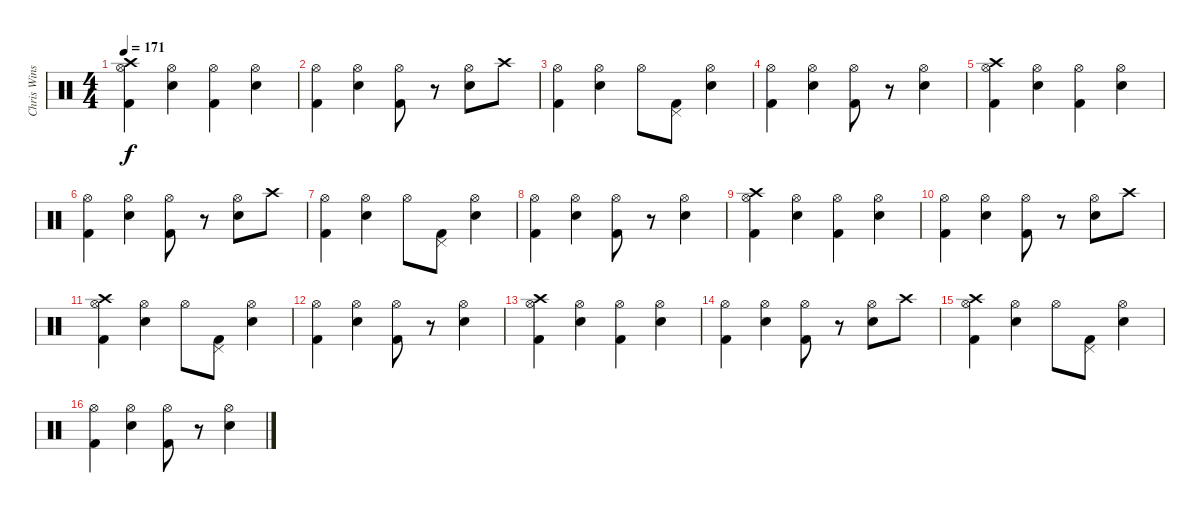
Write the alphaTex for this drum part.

\track ("Chris Winship (Drums)" "Chris Wins") {instrument percussion}
\staff {score}
\articulation defaults
\ts (4 4)
\tempo 171
\clef neutral
\ks c
("Crash high (hit)" "Hi-Hat (open)" "Kick (hit) 2").4{dy f} ("Hi-Hat (open)" "Snare (hit) 2").4 ("Hi-Hat (open)" "Kick (hit) 2").4 ("Hi-Hat (open)" "Snare (hit) 2").4 |
("Hi-Hat (open)" "Kick (hit) 2").4 ("Hi-Hat (open)" "Snare (hit) 2").4 ("Hi-Hat (open)" "Kick (hit) 2").8 r.8 ("Hi-Hat (open)" "Snare (hit) 2").8 "Crash high (hit)".8 |
("Hi-Hat (open)" "Kick (hit) 2").4 ("Hi-Hat (open)" "Snare (hit) 2").4 "Hi-Hat (open)".8 ("Pedal Hi-Hat (hit)" "Kick (hit) 2").8 ("Hi-Hat (open)" "Snare (hit) 2").4 |
("Hi-Hat (open)" "Kick (hit) 2").4 ("Hi-Hat (open)" "Snare (hit) 2").4 ("Hi-Hat (open)" "Kick (hit) 2").8 r.8 ("Hi-Hat (open)" "Snare (hit) 2").4 |
("Crash high (hit)" "Hi-Hat (open)" "Kick (hit) 2").4 ("Hi-Hat (open)" "Snare (hit) 2").4 ("Hi-Hat (open)" "Kick (hit) 2").4 ("Hi-Hat (open)" "Snare (hit) 2").4 |
("Hi-Hat (open)" "Kick (hit) 2").4 ("Hi-Hat (open)" "Snare (hit) 2").4 ("Hi-Hat (open)" "Kick (hit) 2").8 r.8 ("Hi-Hat (open)" "Snare (hit) 2").8 "Crash high (hit)".8 |
("Hi-Hat (open)" "Kick (hit) 2").4 ("Hi-Hat (open)" "Snare (hit) 2").4 "Hi-Hat (open)".8 ("Pedal Hi-Hat (hit)" "Kick (hit) 2").8 ("Hi-Hat (open)" "Snare (hit) 2").4 |
("Hi-Hat (open)" "Kick (hit) 2").4 ("Hi-Hat (open)" "Snare (hit) 2").4 ("Hi-Hat (open)" "Kick (hit) 2").8 r.8 ("Hi-Hat (open)" "Snare (hit) 2").4 |
("Crash high (hit)" "Hi-Hat (open)" "Kick (hit) 2").4 ("Hi-Hat (open)" "Snare (hit) 2").4 ("Hi-Hat (open)" "Kick (hit) 2").4 ("Hi-Hat (open)" "Snare (hit) 2").4 |
("Hi-Hat (open)" "Kick (hit) 2").4 ("Hi-Hat (open)" "Snare (hit) 2").4 ("Hi-Hat (open)" "Kick (hit) 2").8 r.8 ("Hi-Hat (open)" "Snare (hit) 2").8 "Crash high (hit)".8 |
("Crash high (hit)" "Hi-Hat (open)" "Kick (hit) 2").4 ("Hi-Hat (open)" "Snare (hit) 2").4 "Hi-Hat (open)".8 ("Pedal Hi-Hat (hit)" "Kick (hit) 2").8 ("Hi-Hat (open)" "Snare (hit) 2").4 |
("Hi-Hat (open)" "Kick (hit) 2").4 ("Hi-Hat (open)" "Snare (hit) 2").4 ("Hi-Hat (open)" "Kick (hit) 2").8 r.8 ("Hi-Hat (open)" "Snare (hit) 2").4 |
("Crash high (hit)" "Hi-Hat (open)" "Kick (hit) 2").4 ("Hi-Hat (open)" "Snare (hit) 2").4 ("Hi-Hat (open)" "Kick (hit) 2").4 ("Hi-Hat (open)" "Snare (hit) 2").4 |
("Hi-Hat (open)" "Kick (hit) 2").4 ("Hi-Hat (open)" "Snare (hit) 2").4 ("Hi-Hat (open)" "Kick (hit) 2").8 r.8 ("Hi-Hat (open)" "Snare (hit) 2").8 "Crash high (hit)".8 |
("Crash high (hit)" "Hi-Hat (open)" "Kick (hit) 2").4 ("Hi-Hat (open)" "Snare (hit) 2").4 "Hi-Hat (open)".8 ("Pedal Hi-Hat (hit)" "Kick (hit) 2").8 ("Hi-Hat (open)" "Snare (hit) 2").4 |
("Hi-Hat (open)" "Kick (hit) 2").4 ("Hi-Hat (open)" "Snare (hit) 2").4 ("Hi-Hat (open)" "Kick (hit) 2").8 r.8 ("Hi-Hat (open)" "Snare (hit) 2").4
